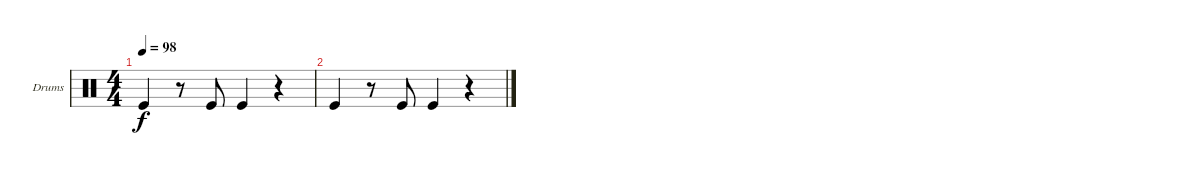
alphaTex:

\defaultSystemsLayout 4
\bracketExtendMode groupsimilarinstruments
\firstSystemTrackNameOrientation horizontal
\otherSystemsTrackNameOrientation horizontal
\track ("Drums" "Drums") {instrument percussion}
\staff {score}
\articulation defaults
\ts (4 4)
\tempo 98
\clef neutral
\scale
1.02648
\ks c "Kick (hit)".4{dy f}
r.8 "Kick (hit)".8 "Kick (hit)".4 r.4 |
\scale
0.973518 "Kick (hit)".4 r.8 "Kick (hit)".8 "Kick (hit)".4 r.4
